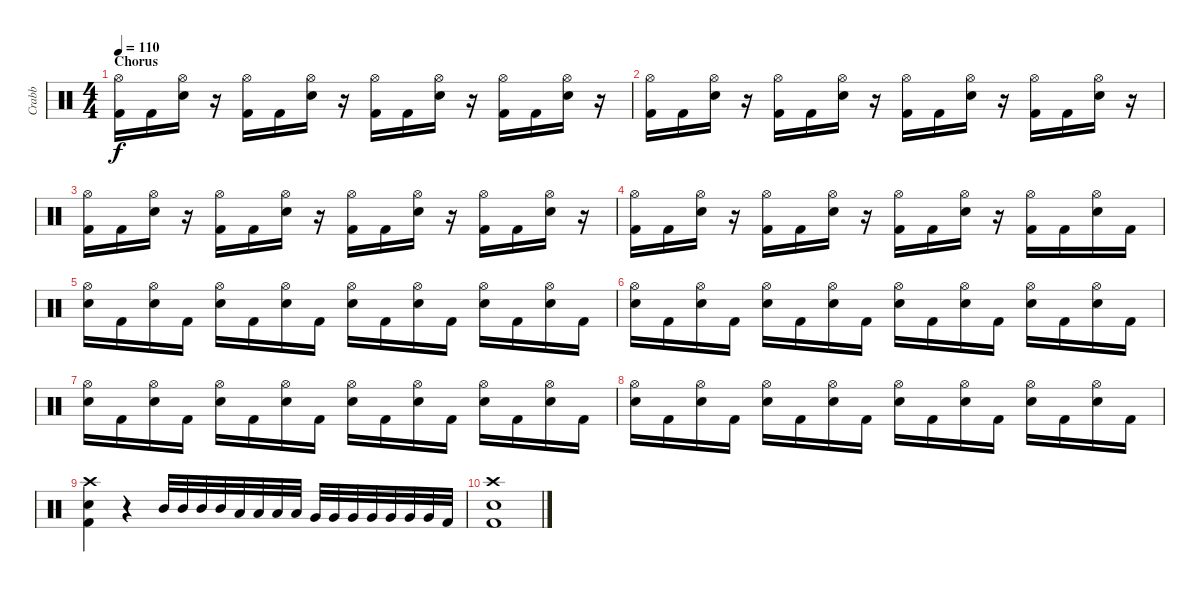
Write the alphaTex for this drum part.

\track ("Crabb" "Crabb") {instrument percussion}
\staff {score}
\articulation defaults
\ts (4 4)
\section ("" "Chorus")
\tempo 110
\clef neutral
\ks c
("Hi-Hat (open)" "Kick (hit) 2").16{dy f} "Kick (hit) 2".16 ("Hi-Hat (open)" "Electric Snare (hit)").16 r.16 ("Hi-Hat (open)" "Kick (hit) 2").16 "Kick (hit) 2".16 ("Hi-Hat (open)" "Electric Snare (hit)").16 r.16 ("Hi-Hat (open)" "Kick (hit) 2").16 "Kick (hit) 2".16 ("Hi-Hat (open)" "Electric Snare (hit)").16 r.16 ("Hi-Hat (open)" "Kick (hit) 2").16 "Kick (hit) 2".16 ("Hi-Hat (open)" "Electric Snare (hit)").16 r.16 |
("Hi-Hat (open)" "Kick (hit) 2").16 "Kick (hit) 2".16 ("Hi-Hat (open)" "Electric Snare (hit)").16 r.16 ("Hi-Hat (open)" "Kick (hit) 2").16 "Kick (hit) 2".16 ("Hi-Hat (open)" "Electric Snare (hit)").16 r.16 ("Hi-Hat (open)" "Kick (hit) 2").16 "Kick (hit) 2".16 ("Hi-Hat (open)" "Electric Snare (hit)").16 r.16 ("Hi-Hat (open)" "Kick (hit) 2").16 "Kick (hit) 2".16 ("Hi-Hat (open)" "Electric Snare (hit)").16 r.16 |
("Hi-Hat (open)" "Kick (hit) 2").16 "Kick (hit) 2".16 ("Hi-Hat (open)" "Electric Snare (hit)").16 r.16 ("Hi-Hat (open)" "Kick (hit) 2").16 "Kick (hit) 2".16 ("Hi-Hat (open)" "Electric Snare (hit)").16 r.16 ("Hi-Hat (open)" "Kick (hit) 2").16 "Kick (hit) 2".16 ("Hi-Hat (open)" "Electric Snare (hit)").16 r.16 ("Hi-Hat (open)" "Kick (hit) 2").16 "Kick (hit) 2".16 ("Hi-Hat (open)" "Electric Snare (hit)").16 r.16 |
("Hi-Hat (open)" "Kick (hit) 2").16 "Kick (hit) 2".16 ("Hi-Hat (open)" "Electric Snare (hit)").16 r.16 ("Hi-Hat (open)" "Kick (hit) 2").16 "Kick (hit) 2".16 ("Hi-Hat (open)" "Electric Snare (hit)").16 r.16 ("Hi-Hat (open)" "Kick (hit) 2").16 "Kick (hit) 2".16 ("Hi-Hat (open)" "Electric Snare (hit)").16 r.16 ("Hi-Hat (open)" "Kick (hit) 2").16 "Kick (hit) 2".16 ("Hi-Hat (open)" "Electric Snare (hit)").16 "Kick (hit) 2".16 |
("Hi-Hat (open)" "Electric Snare (hit)").16 "Kick (hit) 2".16 ("Hi-Hat (open)" "Electric Snare (hit)").16 "Kick (hit) 2".16 ("Hi-Hat (open)" "Electric Snare (hit)").16 "Kick (hit) 2".16 ("Hi-Hat (open)" "Electric Snare (hit)").16 "Kick (hit) 2".16 ("Hi-Hat (open)" "Electric Snare (hit)").16 "Kick (hit) 2".16 ("Hi-Hat (open)" "Electric Snare (hit)").16 "Kick (hit) 2".16 ("Hi-Hat (open)" "Electric Snare (hit)").16 "Kick (hit) 2".16 ("Hi-Hat (open)" "Electric Snare (hit)").16 "Kick (hit) 2".16 |
("Hi-Hat (open)" "Electric Snare (hit)").16 "Kick (hit) 2".16 ("Hi-Hat (open)" "Electric Snare (hit)").16 "Kick (hit) 2".16 ("Hi-Hat (open)" "Electric Snare (hit)").16 "Kick (hit) 2".16 ("Hi-Hat (open)" "Electric Snare (hit)").16 "Kick (hit) 2".16 ("Hi-Hat (open)" "Electric Snare (hit)").16 "Kick (hit) 2".16 ("Hi-Hat (open)" "Electric Snare (hit)").16 "Kick (hit) 2".16 ("Hi-Hat (open)" "Electric Snare (hit)").16 "Kick (hit) 2".16 ("Hi-Hat (open)" "Electric Snare (hit)").16 "Kick (hit) 2".16 |
("Hi-Hat (open)" "Electric Snare (hit)").16 "Kick (hit) 2".16 ("Hi-Hat (open)" "Electric Snare (hit)").16 "Kick (hit) 2".16 ("Hi-Hat (open)" "Electric Snare (hit)").16 "Kick (hit) 2".16 ("Hi-Hat (open)" "Electric Snare (hit)").16 "Kick (hit) 2".16 ("Hi-Hat (open)" "Electric Snare (hit)").16 "Kick (hit) 2".16 ("Hi-Hat (open)" "Electric Snare (hit)").16 "Kick (hit) 2".16 ("Hi-Hat (open)" "Electric Snare (hit)").16 "Kick (hit) 2".16 ("Hi-Hat (open)" "Electric Snare (hit)").16 "Kick (hit) 2".16 |
("Hi-Hat (open)" "Electric Snare (hit)").16 "Kick (hit) 2".16 ("Hi-Hat (open)" "Electric Snare (hit)").16 "Kick (hit) 2".16 ("Hi-Hat (open)" "Electric Snare (hit)").16 "Kick (hit) 2".16 ("Hi-Hat (open)" "Electric Snare (hit)").16 "Kick (hit) 2".16 ("Hi-Hat (open)" "Electric Snare (hit)").16 "Kick (hit) 2".16 ("Hi-Hat (open)" "Electric Snare (hit)").16 "Kick (hit) 2".16 ("Hi-Hat (open)" "Electric Snare (hit)").16 "Kick (hit) 2".16 ("Hi-Hat (open)" "Electric Snare (hit)").16 "Kick (hit) 2".16 |
("Crash high (hit)" "Electric Snare (hit)" "Kick (hit) 2").4 r.4 "Mid Tom (hit)".32 "Mid Tom (hit)".32 "Mid Tom (hit)".32 "Mid Tom (hit)".32 "Low Tom (hit)".32 "Low Tom (hit)".32 "Low Tom (hit)".32 "Low Tom (hit)".32 "Very Low Tom (hit)".32 "Very Low Tom (hit)".32 "Very Low Tom (hit)".32 "Very Low Tom (hit)".32 "Very Low Tom (hit)".32 "Very Low Tom (hit)".32 "Very Low Tom (hit)".32 "Kick (hit) 2".32 |
("Crash high (hit)" "Electric Snare (hit)" "Kick (hit) 2").1
